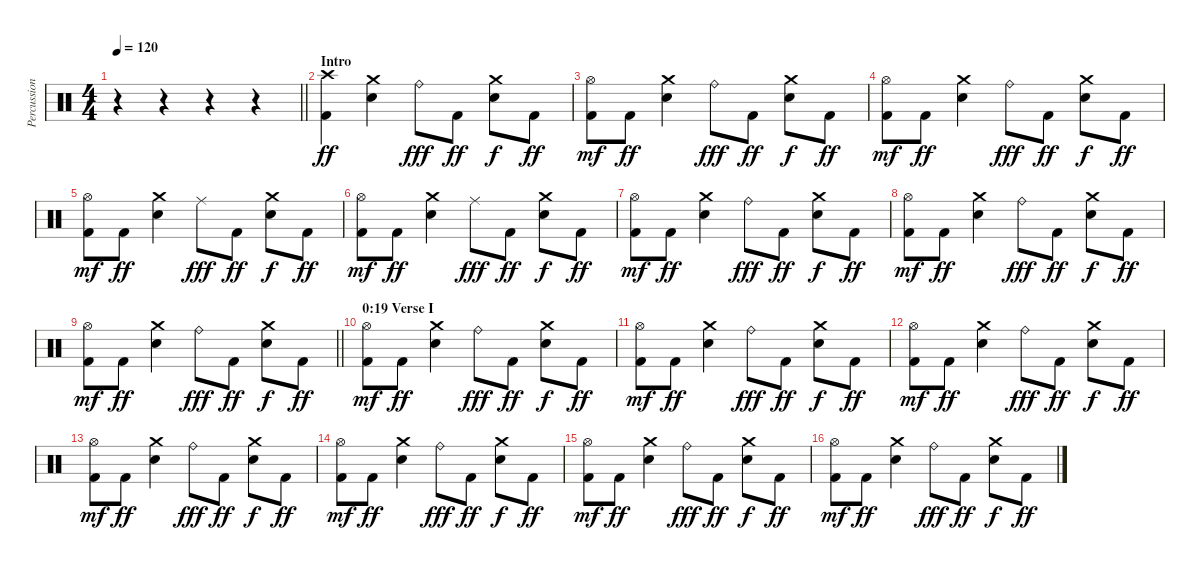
\track ("Percussion" "Percussion") {instrument percussion}
\staff {score}
\articulation defaults
\ts (4 4)
\tempo 120
\clef neutral
\barLineRight lightlight
\ks c
r.4{dy ff} r.4 r.4 r.4 |
\section ("" "Intro")
("Kick (hit) 2" "Crash high (hit)").4 ("Electric Snare (hit)" "Crash medium (hit)").4 "Ride (bell)".8{dy fff} "Kick (hit) 2".8{dy ff} ("Electric Snare (hit)" "Crash medium (hit)").8{dy f} "Kick (hit) 2".8{dy ff} |
("Kick (hit) 2" "Hi-Hat (open)").8{dy mf} "Kick (hit) 2".8{dy ff} ("Electric Snare (hit)" "Crash medium (hit)").4 "Ride (bell)".8{dy fff} "Kick (hit) 2".8{dy ff} ("Electric Snare (hit)" "Crash medium (hit)").8{dy f} "Kick (hit) 2".8{dy ff} |
("Kick (hit) 2" "Hi-Hat (open)").8{dy mf} "Kick (hit) 2".8{dy ff} ("Electric Snare (hit)" "Crash medium (hit)").4 "Ride (bell)".8{dy fff} "Kick (hit) 2".8{dy ff} ("Electric Snare (hit)" "Crash medium (hit)").8{dy f} "Kick (hit) 2".8{dy ff} |
("Kick (hit) 2" "Hi-Hat (open)").8{dy mf} "Kick (hit) 2".8{dy ff} ("Electric Snare (hit)" "Crash medium (hit)").4 "Ride (middle)".8{dy fff} "Kick (hit) 2".8{dy ff} ("Electric Snare (hit)" "Crash medium (hit)").8{dy f} "Kick (hit) 2".8{dy ff} |
("Kick (hit) 2" "Hi-Hat (open)").8{dy mf} "Kick (hit) 2".8{dy ff} ("Electric Snare (hit)" "Crash medium (hit)").4 "Ride (middle)".8{dy fff} "Kick (hit) 2".8{dy ff} ("Electric Snare (hit)" "Crash medium (hit)").8{dy f} "Kick (hit) 2".8{dy ff} |
("Kick (hit) 2" "Hi-Hat (open)").8{dy mf} "Kick (hit) 2".8{dy ff} ("Electric Snare (hit)" "Crash medium (hit)").4 "Ride (bell)".8{dy fff} "Kick (hit) 2".8{dy ff} ("Electric Snare (hit)" "Crash medium (hit)").8{dy f} "Kick (hit) 2".8{dy ff} |
("Kick (hit) 2" "Hi-Hat (open)").8{dy mf} "Kick (hit) 2".8{dy ff} ("Electric Snare (hit)" "Crash medium (hit)").4 "Ride (bell)".8{dy fff} "Kick (hit) 2".8{dy ff} ("Electric Snare (hit)" "Crash medium (hit)").8{dy f} "Kick (hit) 2".8{dy ff} |
\barLineRight lightlight
("Kick (hit) 2" "Hi-Hat (open)").8{dy mf} "Kick (hit) 2".8{dy ff} ("Electric Snare (hit)" "Crash medium (hit)").4 "Ride (bell)".8{dy fff} "Kick (hit) 2".8{dy ff} ("Electric Snare (hit)" "Crash medium (hit)").8{dy f} "Kick (hit) 2".8{dy ff} |
\section ("" "0:19 Verse I")
("Kick (hit) 2" "Hi-Hat (open)").8{dy mf} "Kick (hit) 2".8{dy ff} ("Electric Snare (hit)" "Crash medium (hit)").4 "Ride (bell)".8{dy fff} "Kick (hit) 2".8{dy ff} ("Electric Snare (hit)" "Crash medium (hit)").8{dy f} "Kick (hit) 2".8{dy ff} |
("Kick (hit) 2" "Hi-Hat (open)").8{dy mf} "Kick (hit) 2".8{dy ff} ("Electric Snare (hit)" "Crash medium (hit)").4 "Ride (bell)".8{dy fff} "Kick (hit) 2".8{dy ff} ("Electric Snare (hit)" "Crash medium (hit)").8{dy f} "Kick (hit) 2".8{dy ff} |
("Kick (hit) 2" "Hi-Hat (open)").8{dy mf} "Kick (hit) 2".8{dy ff} ("Electric Snare (hit)" "Crash medium (hit)").4 "Ride (bell)".8{dy fff} "Kick (hit) 2".8{dy ff} ("Electric Snare (hit)" "Crash medium (hit)").8{dy f} "Kick (hit) 2".8{dy ff} |
("Kick (hit) 2" "Hi-Hat (open)").8{dy mf} "Kick (hit) 2".8{dy ff} ("Electric Snare (hit)" "Crash medium (hit)").4 "Ride (bell)".8{dy fff} "Kick (hit) 2".8{dy ff} ("Electric Snare (hit)" "Crash medium (hit)").8{dy f} "Kick (hit) 2".8{dy ff} |
("Kick (hit) 2" "Hi-Hat (open)").8{dy mf} "Kick (hit) 2".8{dy ff} ("Electric Snare (hit)" "Crash medium (hit)").4 "Ride (bell)".8{dy fff} "Kick (hit) 2".8{dy ff} ("Electric Snare (hit)" "Crash medium (hit)").8{dy f} "Kick (hit) 2".8{dy ff} |
("Kick (hit) 2" "Hi-Hat (open)").8{dy mf} "Kick (hit) 2".8{dy ff} ("Electric Snare (hit)" "Crash medium (hit)").4 "Ride (bell)".8{dy fff} "Kick (hit) 2".8{dy ff} ("Electric Snare (hit)" "Crash medium (hit)").8{dy f} "Kick (hit) 2".8{dy ff} |
("Kick (hit) 2" "Hi-Hat (open)").8{dy mf} "Kick (hit) 2".8{dy ff} ("Electric Snare (hit)" "Crash medium (hit)").4 "Ride (bell)".8{dy fff} "Kick (hit) 2".8{dy ff} ("Electric Snare (hit)" "Crash medium (hit)").8{dy f} "Kick (hit) 2".8{dy ff}
